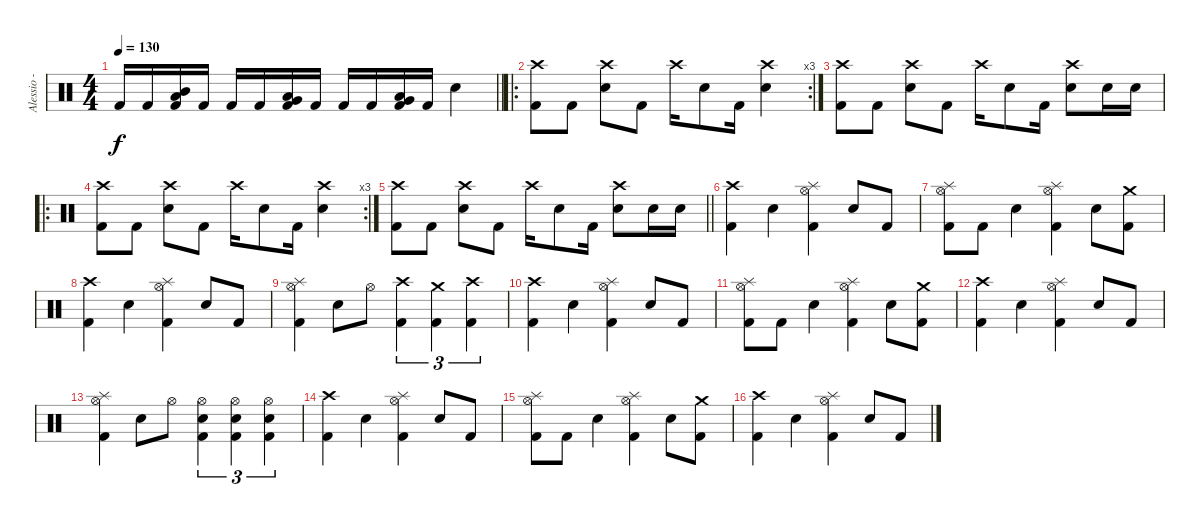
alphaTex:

\track ("Alessio - Drums" "Alessio - ") {instrument percussion}
\staff {score}
\articulation defaults
\ts (4 4)
\tempo 130
\clef neutral
\barLineRight lightlight
\ks c "Kick (hit) 2".16{dy f} "Kick (hit) 2".16
("Low Tom (hit)" "Mid Tom (hit)" "Kick (hit) 2").16 "Kick (hit) 2".16 "Kick (hit) 2".16 "Kick (hit) 2".16 ("Very Low Tom (hit)" "Low Tom (hit)" "Kick (hit) 2").16 "Kick (hit) 2".16 "Kick (hit) 2".16 "Kick (hit) 2".16 ("Low Floor Tom (hit)" "Very Low Tom (hit)" "Kick (hit) 2").16 "Kick (hit) 2".16 "Electric Snare (hit)".4 |
\ro
\rc 3
\section ("" "")
("Crash high (hit)" "Kick (hit) 2").8 "Kick (hit) 2".8 ("Crash high (hit)" "Electric Snare (hit)").8 "Kick (hit) 2".8 "Crash high (hit)".16 "Electric Snare (hit)".8 "Kick (hit) 2".16 ("Crash high (hit)" "Electric Snare (hit)").4 |
("Crash high (hit)" "Kick (hit) 2").8 "Kick (hit) 2".8 ("Crash high (hit)" "Electric Snare (hit)").8 "Kick (hit) 2".8 "Crash high (hit)".16 "Electric Snare (hit)".8 "Kick (hit) 2".16 ("Crash high (hit)" "Electric Snare (hit)").8 "Electric Snare (hit)".16 "Electric Snare (hit)".16 |
\ro
\rc 3
("Crash high (hit)" "Kick (hit) 2").8 "Kick (hit) 2".8 ("Crash high (hit)" "Electric Snare (hit)").8 "Kick (hit) 2".8 "Crash high (hit)".16 "Electric Snare (hit)".8 "Kick (hit) 2".16 ("Crash high (hit)" "Electric Snare (hit)").4 |
\barLineRight lightlight
("Crash high (hit)" "Kick (hit) 2").8 "Kick (hit) 2".8 ("Crash high (hit)" "Electric Snare (hit)").8 "Kick (hit) 2".8 "Crash high (hit)".16 "Electric Snare (hit)".8 "Kick (hit) 2".16 ("Crash high (hit)" "Electric Snare (hit)").8 "Electric Snare (hit)".16 "Electric Snare (hit)".16 |
\section ("" "")
("Crash high (hit)" "Kick (hit) 2").4 "Electric Snare (hit)".4 ("Splash (hit)" "Hi-Hat (open)" "Kick (hit) 2").4 "Electric Snare (hit)".8 "Kick (hit) 2".8 |
("Splash (hit)" "Hi-Hat (open)" "Kick (hit) 2").8 "Kick (hit) 2".8 "Electric Snare (hit)".4 ("Splash (hit)" "Hi-Hat (open)" "Kick (hit) 2").4 "Electric Snare (hit)".8 ("Crash medium (hit)" "Kick (hit) 2").8 |
("Crash high (hit)" "Kick (hit) 2").4 "Electric Snare (hit)".4 ("Splash (hit)" "Hi-Hat (open)" "Kick (hit) 2").4 "Electric Snare (hit)".8 "Kick (hit) 2".8 |
("Splash (hit)" "Hi-Hat (open)" "Kick (hit) 2").4 "Electric Snare (hit)".8 "Hi-Hat (open)".8 ("Crash high (hit)" "Kick (hit) 2").4{tu (3 2)} ("Crash medium (hit)" "Kick (hit) 2").4{tu (3 2)} ("Crash high (hit)" "Kick (hit) 2").4{tu (3 2)} |
("Crash high (hit)" "Kick (hit) 2").4 "Electric Snare (hit)".4 ("Splash (hit)" "Hi-Hat (open)" "Kick (hit) 2").4 "Electric Snare (hit)".8 "Kick (hit) 2".8 |
("Splash (hit)" "Hi-Hat (open)" "Kick (hit) 2").8 "Kick (hit) 2".8 "Electric Snare (hit)".4 ("Splash (hit)" "Hi-Hat (open)" "Kick (hit) 2").4 "Electric Snare (hit)".8 ("Crash medium (hit)" "Kick (hit) 2").8 |
("Crash high (hit)" "Kick (hit) 2").4 "Electric Snare (hit)".4 ("Splash (hit)" "Hi-Hat (open)" "Kick (hit) 2").4 "Electric Snare (hit)".8 "Kick (hit) 2".8 |
("Splash (hit)" "Hi-Hat (open)" "Kick (hit) 2").4 "Electric Snare (hit)".8 "Hi-Hat (open)".8 ("Hi-Hat (open)" "Electric Snare (hit)" "Kick (hit) 2").4{tu (3 2)} ("Hi-Hat (open)" "Electric Snare (hit)" "Kick (hit) 2").4{tu (3 2)} ("Hi-Hat (open)" "Electric Snare (hit)" "Kick (hit) 2").4{tu (3 2)} |
("Crash high (hit)" "Kick (hit) 2").4 "Electric Snare (hit)".4 ("Splash (hit)" "Hi-Hat (open)" "Kick (hit) 2").4 "Electric Snare (hit)".8 "Kick (hit) 2".8 |
("Splash (hit)" "Hi-Hat (open)" "Kick (hit) 2").8 "Kick (hit) 2".8 "Electric Snare (hit)".4 ("Splash (hit)" "Hi-Hat (open)" "Kick (hit) 2").4 "Electric Snare (hit)".8 ("Crash medium (hit)" "Kick (hit) 2").8 |
("Crash high (hit)" "Kick (hit) 2").4 "Electric Snare (hit)".4 ("Splash (hit)" "Hi-Hat (open)" "Kick (hit) 2").4 "Electric Snare (hit)".8 "Kick (hit) 2".8
